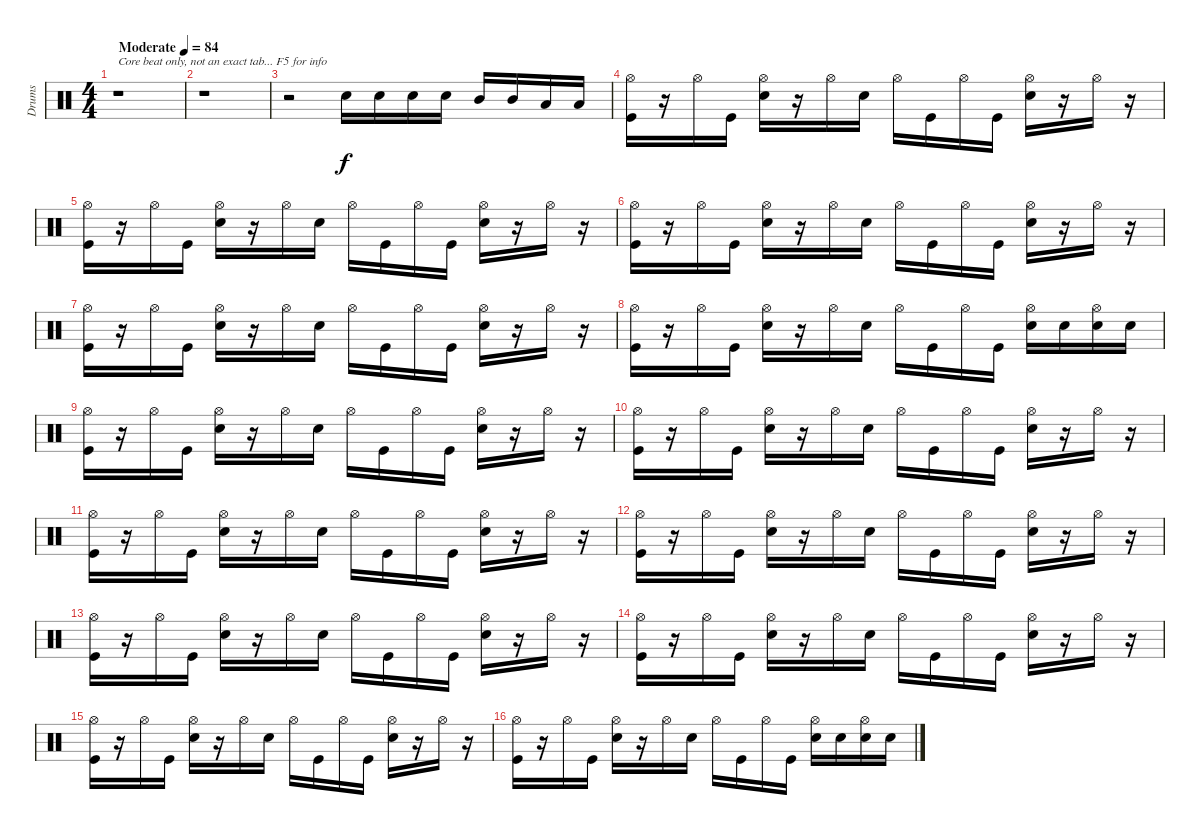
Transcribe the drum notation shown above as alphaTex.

\track ("Drums" "Drums") {instrument percussion}
\staff {score}
\articulation defaults
\ts (4 4)
\tempo (84 "Moderate")
\clef neutral
\ks c
r.1{txt "Core beat only, not an exact tab... F5 for info" dy f} |
r.1 |
r.2 "Snare (hit) 2".16 "Snare (hit) 2".16 "Snare (hit) 2".16 "Snare (hit) 2".16 "Mid Tom (hit)".16 "Mid Tom (hit)".16 "Low Tom (hit)".16 "Low Floor Tom (hit)".16 |
("Hi-Hat (open)" "Kick (hit)").16 r.16 "Hi-Hat (open)".16 "Kick (hit)".16 ("Hi-Hat (open)" "Snare (hit) 2").16 r.16 "Hi-Hat (open)".16 "Snare (hit) 2".16 "Hi-Hat (open)".16 "Kick (hit)".16 "Hi-Hat (open)".16 "Kick (hit)".16 ("Hi-Hat (open)" "Snare (hit) 2").16 r.16 "Hi-Hat (open)".16 r.16 |
("Hi-Hat (open)" "Kick (hit)").16 r.16 "Hi-Hat (open)".16 "Kick (hit)".16 ("Hi-Hat (open)" "Snare (hit) 2").16 r.16 "Hi-Hat (open)".16 "Snare (hit) 2".16 "Hi-Hat (open)".16 "Kick (hit)".16 "Hi-Hat (open)".16 "Kick (hit)".16 ("Hi-Hat (open)" "Snare (hit) 2").16 r.16 "Hi-Hat (open)".16 r.16 |
("Hi-Hat (open)" "Kick (hit)").16 r.16 "Hi-Hat (open)".16 "Kick (hit)".16 ("Hi-Hat (open)" "Snare (hit) 2").16 r.16 "Hi-Hat (open)".16 "Snare (hit) 2".16 "Hi-Hat (open)".16 "Kick (hit)".16 "Hi-Hat (open)".16 "Kick (hit)".16 ("Hi-Hat (open)" "Snare (hit) 2").16 r.16 "Hi-Hat (open)".16 r.16 |
("Hi-Hat (open)" "Kick (hit)").16 r.16 "Hi-Hat (open)".16 "Kick (hit)".16 ("Hi-Hat (open)" "Snare (hit) 2").16 r.16 "Hi-Hat (open)".16 "Snare (hit) 2".16 "Hi-Hat (open)".16 "Kick (hit)".16 "Hi-Hat (open)".16 "Kick (hit)".16 ("Hi-Hat (open)" "Snare (hit) 2").16 r.16 "Hi-Hat (open)".16 r.16 |
("Hi-Hat (open)" "Kick (hit)").16 r.16 "Hi-Hat (open)".16 "Kick (hit)".16 ("Hi-Hat (open)" "Snare (hit) 2").16 r.16 "Hi-Hat (open)".16 "Snare (hit) 2".16 "Hi-Hat (open)".16 "Kick (hit)".16 "Hi-Hat (open)".16 "Kick (hit)".16 ("Hi-Hat (open)" "Snare (hit) 2").16 "Snare (hit) 2".16 ("Hi-Hat (open)" "Snare (hit) 2").16 "Snare (hit) 2".16 |
("Hi-Hat (open)" "Kick (hit)").16 r.16 "Hi-Hat (open)".16 "Kick (hit)".16 ("Hi-Hat (open)" "Snare (hit) 2").16 r.16 "Hi-Hat (open)".16 "Snare (hit) 2".16 "Hi-Hat (open)".16 "Kick (hit)".16 "Hi-Hat (open)".16 "Kick (hit)".16 ("Hi-Hat (open)" "Snare (hit) 2").16 r.16 "Hi-Hat (open)".16 r.16 |
("Hi-Hat (open)" "Kick (hit)").16 r.16 "Hi-Hat (open)".16 "Kick (hit)".16 ("Hi-Hat (open)" "Snare (hit) 2").16 r.16 "Hi-Hat (open)".16 "Snare (hit) 2".16 "Hi-Hat (open)".16 "Kick (hit)".16 "Hi-Hat (open)".16 "Kick (hit)".16 ("Hi-Hat (open)" "Snare (hit) 2").16 r.16 "Hi-Hat (open)".16 r.16 |
("Hi-Hat (open)" "Kick (hit)").16 r.16 "Hi-Hat (open)".16 "Kick (hit)".16 ("Hi-Hat (open)" "Snare (hit) 2").16 r.16 "Hi-Hat (open)".16 "Snare (hit) 2".16 "Hi-Hat (open)".16 "Kick (hit)".16 "Hi-Hat (open)".16 "Kick (hit)".16 ("Hi-Hat (open)" "Snare (hit) 2").16 r.16 "Hi-Hat (open)".16 r.16 |
("Hi-Hat (open)" "Kick (hit)").16 r.16 "Hi-Hat (open)".16 "Kick (hit)".16 ("Hi-Hat (open)" "Snare (hit) 2").16 r.16 "Hi-Hat (open)".16 "Snare (hit) 2".16 "Hi-Hat (open)".16 "Kick (hit)".16 "Hi-Hat (open)".16 "Kick (hit)".16 ("Hi-Hat (open)" "Snare (hit) 2").16 r.16 "Hi-Hat (open)".16 r.16 |
("Hi-Hat (open)" "Kick (hit)").16 r.16 "Hi-Hat (open)".16 "Kick (hit)".16 ("Hi-Hat (open)" "Snare (hit) 2").16 r.16 "Hi-Hat (open)".16 "Snare (hit) 2".16 "Hi-Hat (open)".16 "Kick (hit)".16 "Hi-Hat (open)".16 "Kick (hit)".16 ("Hi-Hat (open)" "Snare (hit) 2").16 r.16 "Hi-Hat (open)".16 r.16 |
("Hi-Hat (open)" "Kick (hit)").16 r.16 "Hi-Hat (open)".16 "Kick (hit)".16 ("Hi-Hat (open)" "Snare (hit) 2").16 r.16 "Hi-Hat (open)".16 "Snare (hit) 2".16 "Hi-Hat (open)".16 "Kick (hit)".16 "Hi-Hat (open)".16 "Kick (hit)".16 ("Hi-Hat (open)" "Snare (hit) 2").16 r.16 "Hi-Hat (open)".16 r.16 |
("Hi-Hat (open)" "Kick (hit)").16 r.16 "Hi-Hat (open)".16 "Kick (hit)".16 ("Hi-Hat (open)" "Snare (hit) 2").16 r.16 "Hi-Hat (open)".16 "Snare (hit) 2".16 "Hi-Hat (open)".16 "Kick (hit)".16 "Hi-Hat (open)".16 "Kick (hit)".16 ("Hi-Hat (open)" "Snare (hit) 2").16 r.16 "Hi-Hat (open)".16 r.16 |
("Hi-Hat (open)" "Kick (hit)").16 r.16 "Hi-Hat (open)".16 "Kick (hit)".16 ("Hi-Hat (open)" "Snare (hit) 2").16 r.16 "Hi-Hat (open)".16 "Snare (hit) 2".16 "Hi-Hat (open)".16 "Kick (hit)".16 "Hi-Hat (open)".16 "Kick (hit)".16 ("Hi-Hat (open)" "Snare (hit) 2").16 "Snare (hit) 2".16 ("Hi-Hat (open)" "Snare (hit) 2").16 "Snare (hit) 2".16
